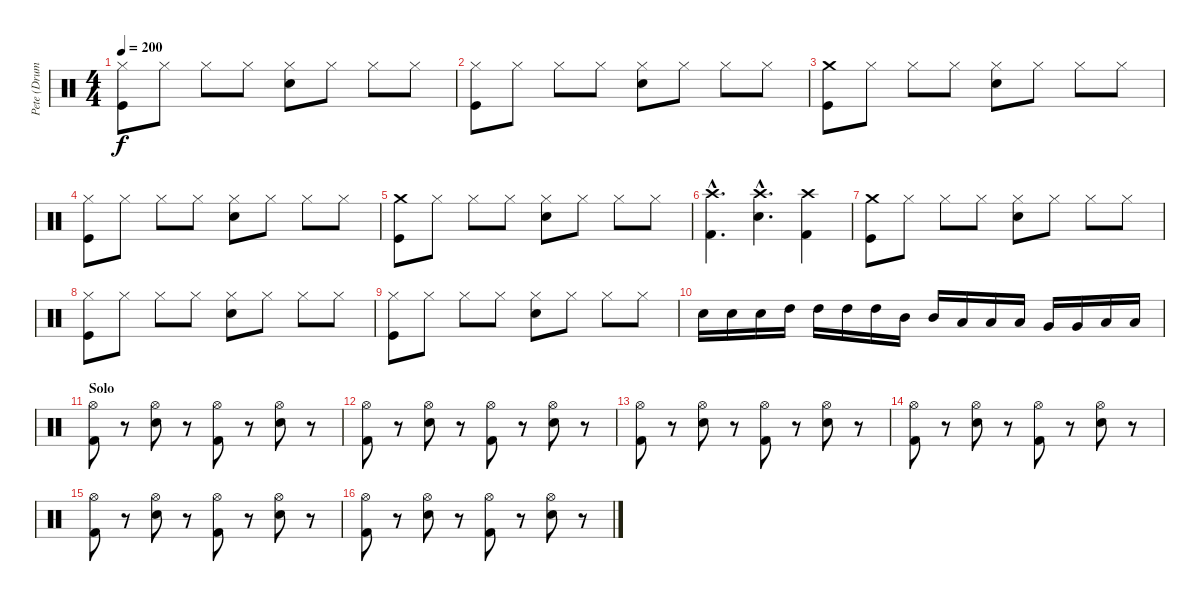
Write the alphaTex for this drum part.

\track ("Pete (Drums)" "Pete (Drum") {instrument percussion}
\staff {score}
\articulation defaults
\ts (4 4)
\tempo 200
\clef neutral
\ks c
("Hi-Hat (closed)" "Kick (hit)").8{dy f} "Hi-Hat (closed)".8 "Hi-Hat (closed)".8 "Hi-Hat (closed)".8 ("Hi-Hat (closed)" "Snare (hit) 2").8 "Hi-Hat (closed)".8 "Hi-Hat (closed)".8 "Hi-Hat (closed)".8 |
("Hi-Hat (closed)" "Kick (hit)").8 "Hi-Hat (closed)".8 "Hi-Hat (closed)".8 "Hi-Hat (closed)".8 ("Hi-Hat (closed)" "Snare (hit) 2").8 "Hi-Hat (closed)".8 "Hi-Hat (closed)".8 "Hi-Hat (closed)".8 |
("Crash medium (hit)" "Kick (hit)").8 "Hi-Hat (closed)".8 "Hi-Hat (closed)".8 "Hi-Hat (closed)".8 ("Hi-Hat (closed)" "Snare (hit) 2").8 "Hi-Hat (closed)".8 "Hi-Hat (closed)".8 "Hi-Hat (closed)".8 |
("Hi-Hat (closed)" "Kick (hit)").8 "Hi-Hat (closed)".8 "Hi-Hat (closed)".8 "Hi-Hat (closed)".8 ("Hi-Hat (closed)" "Snare (hit) 2").8 "Hi-Hat (closed)".8 "Hi-Hat (closed)".8 "Hi-Hat (closed)".8 |
("Crash medium (hit)" "Kick (hit)").8 "Hi-Hat (closed)".8 "Hi-Hat (closed)".8 "Hi-Hat (closed)".8 ("Hi-Hat (closed)" "Snare (hit) 2").8 "Hi-Hat (closed)".8 "Hi-Hat (closed)".8 "Hi-Hat (closed)".8 |
("Crash high (hit)"{hac} "Kick (hit) 2"{hac}).4{d} ("Crash high (hit)"{hac} "Snare (hit) 2"{hac}).4{d} ("Crash high (hit)" "Kick (hit) 2").4 |
("Crash medium (hit)" "Kick (hit)").8 "Hi-Hat (closed)".8 "Hi-Hat (closed)".8 "Hi-Hat (closed)".8 ("Hi-Hat (closed)" "Snare (hit) 2").8 "Hi-Hat (closed)".8 "Hi-Hat (closed)".8 "Hi-Hat (closed)".8 |
("Hi-Hat (closed)" "Kick (hit)").8 "Hi-Hat (closed)".8 "Hi-Hat (closed)".8 "Hi-Hat (closed)".8 ("Hi-Hat (closed)" "Snare (hit) 2").8 "Hi-Hat (closed)".8 "Hi-Hat (closed)".8 "Hi-Hat (closed)".8 |
("Hi-Hat (closed)" "Kick (hit)").8 "Hi-Hat (closed)".8 "Hi-Hat (closed)".8 "Hi-Hat (closed)".8 ("Hi-Hat (closed)" "Snare (hit) 2").8 "Hi-Hat (closed)".8 "Hi-Hat (closed)".8 "Hi-Hat (closed)".8 |
"Snare (hit) 2".16 "Snare (hit) 2".16 "Snare (hit) 2".16 "High Tom (hit)".16 "High Tom (hit)".16 "High Tom (hit)".16 "High Tom (hit)".16 "Mid Tom (hit)".16 "Mid Tom (hit)".16 "Low Tom (hit)".16 "Low Tom (hit)".16 "Low Tom (hit)".16 "Very Low Tom (hit)".16 "Very Low Tom (hit)".16 "Low Floor Tom (hit)".16 "Low Floor Tom (hit)".16 |
\section ("" "Solo")
("Hi-Hat (open)" "Kick (hit) 2").8 r.8 ("Hi-Hat (open)" "Snare (hit) 2").8 r.8 ("Hi-Hat (open)" "Kick (hit) 2").8 r.8 ("Hi-Hat (open)" "Snare (hit) 2").8 r.8 |
("Hi-Hat (open)" "Kick (hit) 2").8 r.8 ("Hi-Hat (open)" "Snare (hit) 2").8 r.8 ("Hi-Hat (open)" "Kick (hit) 2").8 r.8 ("Hi-Hat (open)" "Snare (hit) 2").8 r.8 |
("Hi-Hat (open)" "Kick (hit) 2").8 r.8 ("Hi-Hat (open)" "Snare (hit) 2").8 r.8 ("Hi-Hat (open)" "Kick (hit) 2").8 r.8 ("Hi-Hat (open)" "Snare (hit) 2").8 r.8 |
("Hi-Hat (open)" "Kick (hit) 2").8 r.8 ("Hi-Hat (open)" "Snare (hit) 2").8 r.8 ("Hi-Hat (open)" "Kick (hit) 2").8 r.8 ("Hi-Hat (open)" "Snare (hit) 2").8 r.8 |
("Hi-Hat (open)" "Kick (hit) 2").8 r.8 ("Hi-Hat (open)" "Snare (hit) 2").8 r.8 ("Hi-Hat (open)" "Kick (hit) 2").8 r.8 ("Hi-Hat (open)" "Snare (hit) 2").8 r.8 |
("Hi-Hat (open)" "Kick (hit) 2").8 r.8 ("Hi-Hat (open)" "Snare (hit) 2").8 r.8 ("Hi-Hat (open)" "Kick (hit) 2").8 r.8 ("Hi-Hat (open)" "Snare (hit) 2").8 r.8
